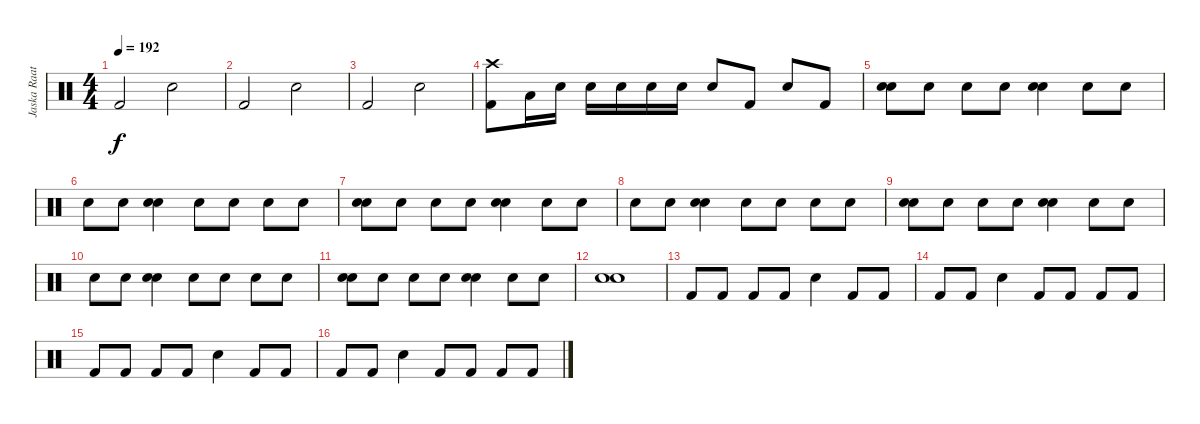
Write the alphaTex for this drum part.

\track ("Jaska Raatikainen" "Jaska Raat") {instrument percussion}
\staff {score}
\articulation defaults
\ts (4 4)
\tempo 192
\clef neutral
\ks c "Kick (hit) 2".2{dy f} "Snare (hit) 2".2
|
"Kick (hit) 2".2 "Snare (hit) 2".2 |
"Kick (hit) 2".2 "Snare (hit) 2".2 |
("Crash high (hit)" "Kick (hit) 2").8 "Low Floor Tom (hit)".16 "Snare (hit) 2".16 "Snare (hit) 2".16 "Snare (hit) 2".16 "Snare (hit) 2".16 "Snare (hit) 2".16 "Snare (hit) 2".8 "Kick (hit) 2".8 "Snare (hit) 2".8 "Kick (hit) 2".8 |
("Snare (hit) 2" "Snare (hit) 2").8 "Snare (hit) 2".8 "Snare (hit) 2".8 "Snare (hit) 2".8 ("Snare (hit) 2" "Snare (hit) 2").4 "Snare (hit) 2".8 "Snare (hit) 2".8 |
"Snare (hit) 2".8 "Snare (hit) 2".8 ("Snare (hit) 2" "Snare (hit) 2").4 "Snare (hit) 2".8 "Snare (hit) 2".8 "Snare (hit) 2".8 "Snare (hit) 2".8 |
("Snare (hit) 2" "Snare (hit) 2").8 "Snare (hit) 2".8 "Snare (hit) 2".8 "Snare (hit) 2".8 ("Snare (hit) 2" "Snare (hit) 2").4 "Snare (hit) 2".8 "Snare (hit) 2".8 |
"Snare (hit) 2".8 "Snare (hit) 2".8 ("Snare (hit) 2" "Snare (hit) 2").4 "Snare (hit) 2".8 "Snare (hit) 2".8 "Snare (hit) 2".8 "Snare (hit) 2".8 |
("Snare (hit) 2" "Snare (hit) 2").8 "Snare (hit) 2".8 "Snare (hit) 2".8 "Snare (hit) 2".8 ("Snare (hit) 2" "Snare (hit) 2").4 "Snare (hit) 2".8 "Snare (hit) 2".8 |
"Snare (hit) 2".8 "Snare (hit) 2".8 ("Snare (hit) 2" "Snare (hit) 2").4 "Snare (hit) 2".8 "Snare (hit) 2".8 "Snare (hit) 2".8 "Snare (hit) 2".8 |
("Snare (hit) 2" "Snare (hit) 2").8 "Snare (hit) 2".8 "Snare (hit) 2".8 "Snare (hit) 2".8 ("Snare (hit) 2" "Snare (hit) 2").4 "Snare (hit) 2".8 "Snare (hit) 2".8 |
("Snare (hit) 2" "Snare (hit) 2").1 |
"Kick (hit) 2".8 "Kick (hit) 2".8 "Kick (hit) 2".8 "Kick (hit) 2".8 "Snare (hit) 2".4 "Kick (hit) 2".8 "Kick (hit) 2".8 |
"Kick (hit) 2".8 "Kick (hit) 2".8 "Snare (hit) 2".4 "Kick (hit) 2".8 "Kick (hit) 2".8 "Kick (hit) 2".8 "Kick (hit) 2".8 |
"Kick (hit) 2".8 "Kick (hit) 2".8 "Kick (hit) 2".8 "Kick (hit) 2".8 "Snare (hit) 2".4 "Kick (hit) 2".8 "Kick (hit) 2".8 |
"Kick (hit) 2".8 "Kick (hit) 2".8 "Snare (hit) 2".4 "Kick (hit) 2".8 "Kick (hit) 2".8 "Kick (hit) 2".8 "Kick (hit) 2".8
